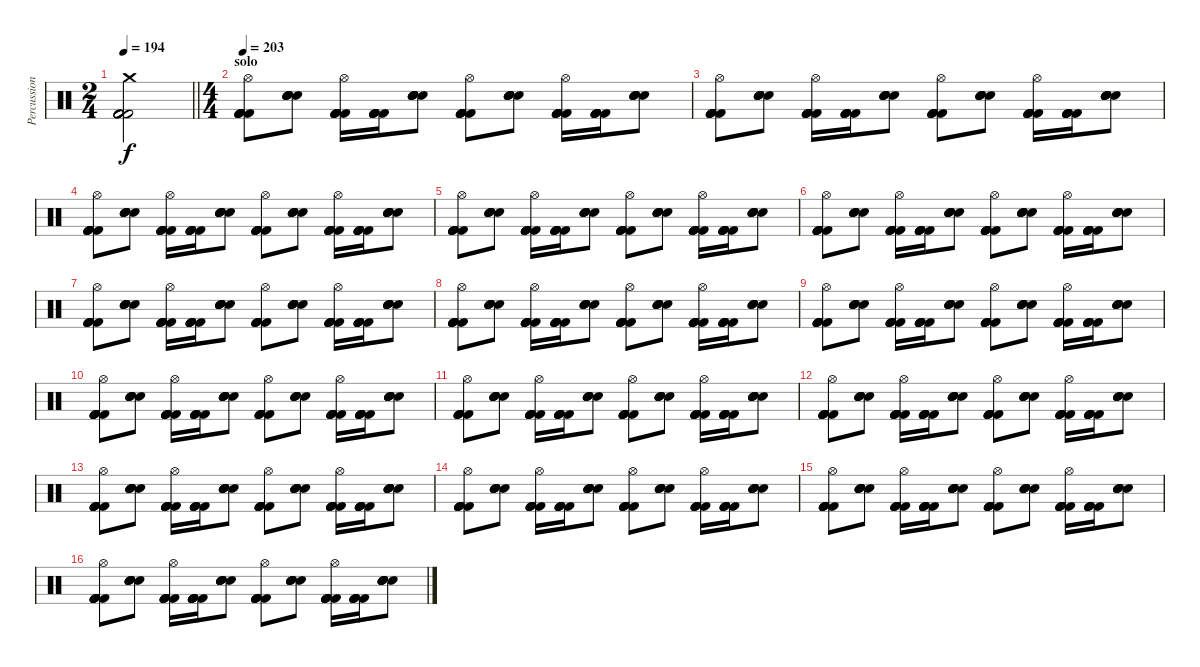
\track ("Percussion" "Percussion") {instrument percussion}
\staff {score}
\articulation defaults
\ts (2 4)
\tempo 194
\clef neutral
\barLineRight lightlight
\ks c
("Kick (hit) 2" "Kick (hit) 2" "Kick (hit) 2" "Kick (hit) 2" "Kick (hit) 2" "Crash medium (hit)").2{dy f} |
\ts (4 4)
\section ("" "solo")
\tempo 203
("Kick (hit) 2" "Kick (hit) 2" "Kick (hit) 2" "Kick (hit) 2" "Kick (hit) 2" "Hi-Hat (open)").8 ("Electric Snare (hit)" "Electric Snare (hit)" "Electric Snare (hit)" "Electric Snare (hit)" "Electric Snare (hit)").8 ("Kick (hit) 2" "Kick (hit) 2" "Kick (hit) 2" "Kick (hit) 2" "Kick (hit) 2" "Hi-Hat (open)").16 ("Kick (hit) 2" "Kick (hit) 2" "Kick (hit) 2" "Kick (hit) 2" "Kick (hit) 2").16 ("Electric Snare (hit)" "Electric Snare (hit)" "Electric Snare (hit)" "Electric Snare (hit)" "Electric Snare (hit)").8 ("Kick (hit) 2" "Kick (hit) 2" "Kick (hit) 2" "Kick (hit) 2" "Kick (hit) 2" "Hi-Hat (open)").8 ("Electric Snare (hit)" "Electric Snare (hit)" "Electric Snare (hit)" "Electric Snare (hit)" "Electric Snare (hit)").8 ("Kick (hit) 2" "Kick (hit) 2" "Kick (hit) 2" "Kick (hit) 2" "Kick (hit) 2" "Hi-Hat (open)").16 ("Kick (hit) 2" "Kick (hit) 2" "Kick (hit) 2" "Kick (hit) 2" "Kick (hit) 2").16 ("Electric Snare (hit)" "Electric Snare (hit)" "Electric Snare (hit)" "Electric Snare (hit)" "Electric Snare (hit)").8 |
("Kick (hit) 2" "Kick (hit) 2" "Kick (hit) 2" "Kick (hit) 2" "Kick (hit) 2" "Hi-Hat (open)").8 ("Electric Snare (hit)" "Electric Snare (hit)" "Electric Snare (hit)" "Electric Snare (hit)" "Electric Snare (hit)").8 ("Kick (hit) 2" "Kick (hit) 2" "Kick (hit) 2" "Kick (hit) 2" "Kick (hit) 2" "Hi-Hat (open)").16 ("Kick (hit) 2" "Kick (hit) 2" "Kick (hit) 2" "Kick (hit) 2" "Kick (hit) 2").16 ("Electric Snare (hit)" "Electric Snare (hit)" "Electric Snare (hit)" "Electric Snare (hit)" "Electric Snare (hit)").8 ("Kick (hit) 2" "Kick (hit) 2" "Kick (hit) 2" "Kick (hit) 2" "Kick (hit) 2" "Hi-Hat (open)").8 ("Electric Snare (hit)" "Electric Snare (hit)" "Electric Snare (hit)" "Electric Snare (hit)" "Electric Snare (hit)").8 ("Kick (hit) 2" "Kick (hit) 2" "Kick (hit) 2" "Kick (hit) 2" "Kick (hit) 2" "Hi-Hat (open)").16 ("Kick (hit) 2" "Kick (hit) 2" "Kick (hit) 2" "Kick (hit) 2" "Kick (hit) 2").16 ("Electric Snare (hit)" "Electric Snare (hit)" "Electric Snare (hit)" "Electric Snare (hit)" "Electric Snare (hit)").8 |
("Kick (hit) 2" "Kick (hit) 2" "Kick (hit) 2" "Kick (hit) 2" "Kick (hit) 2" "Hi-Hat (open)").8 ("Electric Snare (hit)" "Electric Snare (hit)" "Electric Snare (hit)" "Electric Snare (hit)" "Electric Snare (hit)").8 ("Kick (hit) 2" "Kick (hit) 2" "Kick (hit) 2" "Kick (hit) 2" "Kick (hit) 2" "Hi-Hat (open)").16 ("Kick (hit) 2" "Kick (hit) 2" "Kick (hit) 2" "Kick (hit) 2" "Kick (hit) 2").16 ("Electric Snare (hit)" "Electric Snare (hit)" "Electric Snare (hit)" "Electric Snare (hit)" "Electric Snare (hit)").8 ("Kick (hit) 2" "Kick (hit) 2" "Kick (hit) 2" "Kick (hit) 2" "Kick (hit) 2" "Hi-Hat (open)").8 ("Electric Snare (hit)" "Electric Snare (hit)" "Electric Snare (hit)" "Electric Snare (hit)" "Electric Snare (hit)").8 ("Kick (hit) 2" "Kick (hit) 2" "Kick (hit) 2" "Kick (hit) 2" "Kick (hit) 2" "Hi-Hat (open)").16 ("Kick (hit) 2" "Kick (hit) 2" "Kick (hit) 2" "Kick (hit) 2" "Kick (hit) 2").16 ("Electric Snare (hit)" "Electric Snare (hit)" "Electric Snare (hit)" "Electric Snare (hit)" "Electric Snare (hit)").8 |
("Kick (hit) 2" "Kick (hit) 2" "Kick (hit) 2" "Kick (hit) 2" "Kick (hit) 2" "Hi-Hat (open)").8 ("Electric Snare (hit)" "Electric Snare (hit)" "Electric Snare (hit)" "Electric Snare (hit)" "Electric Snare (hit)").8 ("Kick (hit) 2" "Kick (hit) 2" "Kick (hit) 2" "Kick (hit) 2" "Kick (hit) 2" "Hi-Hat (open)").16 ("Kick (hit) 2" "Kick (hit) 2" "Kick (hit) 2" "Kick (hit) 2" "Kick (hit) 2").16 ("Electric Snare (hit)" "Electric Snare (hit)" "Electric Snare (hit)" "Electric Snare (hit)" "Electric Snare (hit)").8 ("Kick (hit) 2" "Kick (hit) 2" "Kick (hit) 2" "Kick (hit) 2" "Kick (hit) 2" "Hi-Hat (open)").8 ("Electric Snare (hit)" "Electric Snare (hit)" "Electric Snare (hit)" "Electric Snare (hit)" "Electric Snare (hit)").8 ("Kick (hit) 2" "Kick (hit) 2" "Kick (hit) 2" "Kick (hit) 2" "Kick (hit) 2" "Hi-Hat (open)").16 ("Kick (hit) 2" "Kick (hit) 2" "Kick (hit) 2" "Kick (hit) 2" "Kick (hit) 2").16 ("Electric Snare (hit)" "Electric Snare (hit)" "Electric Snare (hit)" "Electric Snare (hit)" "Electric Snare (hit)").8 |
("Kick (hit) 2" "Kick (hit) 2" "Kick (hit) 2" "Kick (hit) 2" "Kick (hit) 2" "Hi-Hat (open)").8 ("Electric Snare (hit)" "Electric Snare (hit)" "Electric Snare (hit)" "Electric Snare (hit)" "Electric Snare (hit)").8 ("Kick (hit) 2" "Kick (hit) 2" "Kick (hit) 2" "Kick (hit) 2" "Kick (hit) 2" "Hi-Hat (open)").16 ("Kick (hit) 2" "Kick (hit) 2" "Kick (hit) 2" "Kick (hit) 2" "Kick (hit) 2").16 ("Electric Snare (hit)" "Electric Snare (hit)" "Electric Snare (hit)" "Electric Snare (hit)" "Electric Snare (hit)").8 ("Kick (hit) 2" "Kick (hit) 2" "Kick (hit) 2" "Kick (hit) 2" "Kick (hit) 2" "Hi-Hat (open)").8 ("Electric Snare (hit)" "Electric Snare (hit)" "Electric Snare (hit)" "Electric Snare (hit)" "Electric Snare (hit)").8 ("Kick (hit) 2" "Kick (hit) 2" "Kick (hit) 2" "Kick (hit) 2" "Kick (hit) 2" "Hi-Hat (open)").16 ("Kick (hit) 2" "Kick (hit) 2" "Kick (hit) 2" "Kick (hit) 2" "Kick (hit) 2").16 ("Electric Snare (hit)" "Electric Snare (hit)" "Electric Snare (hit)" "Electric Snare (hit)" "Electric Snare (hit)").8 |
("Kick (hit) 2" "Kick (hit) 2" "Kick (hit) 2" "Kick (hit) 2" "Kick (hit) 2" "Hi-Hat (open)").8 ("Electric Snare (hit)" "Electric Snare (hit)" "Electric Snare (hit)" "Electric Snare (hit)" "Electric Snare (hit)").8 ("Kick (hit) 2" "Kick (hit) 2" "Kick (hit) 2" "Kick (hit) 2" "Kick (hit) 2" "Hi-Hat (open)").16 ("Kick (hit) 2" "Kick (hit) 2" "Kick (hit) 2" "Kick (hit) 2" "Kick (hit) 2").16 ("Electric Snare (hit)" "Electric Snare (hit)" "Electric Snare (hit)" "Electric Snare (hit)" "Electric Snare (hit)").8 ("Kick (hit) 2" "Kick (hit) 2" "Kick (hit) 2" "Kick (hit) 2" "Kick (hit) 2" "Hi-Hat (open)").8 ("Electric Snare (hit)" "Electric Snare (hit)" "Electric Snare (hit)" "Electric Snare (hit)" "Electric Snare (hit)").8 ("Kick (hit) 2" "Kick (hit) 2" "Kick (hit) 2" "Kick (hit) 2" "Kick (hit) 2" "Hi-Hat (open)").16 ("Kick (hit) 2" "Kick (hit) 2" "Kick (hit) 2" "Kick (hit) 2" "Kick (hit) 2").16 ("Electric Snare (hit)" "Electric Snare (hit)" "Electric Snare (hit)" "Electric Snare (hit)" "Electric Snare (hit)").8 |
("Kick (hit) 2" "Kick (hit) 2" "Kick (hit) 2" "Kick (hit) 2" "Kick (hit) 2" "Hi-Hat (open)").8 ("Electric Snare (hit)" "Electric Snare (hit)" "Electric Snare (hit)" "Electric Snare (hit)" "Electric Snare (hit)").8 ("Kick (hit) 2" "Kick (hit) 2" "Kick (hit) 2" "Kick (hit) 2" "Kick (hit) 2" "Hi-Hat (open)").16 ("Kick (hit) 2" "Kick (hit) 2" "Kick (hit) 2" "Kick (hit) 2" "Kick (hit) 2").16 ("Electric Snare (hit)" "Electric Snare (hit)" "Electric Snare (hit)" "Electric Snare (hit)" "Electric Snare (hit)").8 ("Kick (hit) 2" "Kick (hit) 2" "Kick (hit) 2" "Kick (hit) 2" "Kick (hit) 2" "Hi-Hat (open)").8 ("Electric Snare (hit)" "Electric Snare (hit)" "Electric Snare (hit)" "Electric Snare (hit)" "Electric Snare (hit)").8 ("Kick (hit) 2" "Kick (hit) 2" "Kick (hit) 2" "Kick (hit) 2" "Kick (hit) 2" "Hi-Hat (open)").16 ("Kick (hit) 2" "Kick (hit) 2" "Kick (hit) 2" "Kick (hit) 2" "Kick (hit) 2").16 ("Electric Snare (hit)" "Electric Snare (hit)" "Electric Snare (hit)" "Electric Snare (hit)" "Electric Snare (hit)").8 |
("Kick (hit) 2" "Kick (hit) 2" "Kick (hit) 2" "Kick (hit) 2" "Kick (hit) 2" "Hi-Hat (open)").8 ("Electric Snare (hit)" "Electric Snare (hit)" "Electric Snare (hit)" "Electric Snare (hit)" "Electric Snare (hit)").8 ("Kick (hit) 2" "Kick (hit) 2" "Kick (hit) 2" "Kick (hit) 2" "Kick (hit) 2" "Hi-Hat (open)").16 ("Kick (hit) 2" "Kick (hit) 2" "Kick (hit) 2" "Kick (hit) 2" "Kick (hit) 2").16 ("Electric Snare (hit)" "Electric Snare (hit)" "Electric Snare (hit)" "Electric Snare (hit)" "Electric Snare (hit)").8 ("Kick (hit) 2" "Kick (hit) 2" "Kick (hit) 2" "Kick (hit) 2" "Kick (hit) 2" "Hi-Hat (open)").8 ("Electric Snare (hit)" "Electric Snare (hit)" "Electric Snare (hit)" "Electric Snare (hit)" "Electric Snare (hit)").8 ("Kick (hit) 2" "Kick (hit) 2" "Kick (hit) 2" "Kick (hit) 2" "Kick (hit) 2" "Hi-Hat (open)").16 ("Kick (hit) 2" "Kick (hit) 2" "Kick (hit) 2" "Kick (hit) 2" "Kick (hit) 2").16 ("Electric Snare (hit)" "Electric Snare (hit)" "Electric Snare (hit)" "Electric Snare (hit)" "Electric Snare (hit)").8 |
("Kick (hit) 2" "Kick (hit) 2" "Kick (hit) 2" "Kick (hit) 2" "Kick (hit) 2" "Hi-Hat (open)").8 ("Electric Snare (hit)" "Electric Snare (hit)" "Electric Snare (hit)" "Electric Snare (hit)" "Electric Snare (hit)").8 ("Kick (hit) 2" "Kick (hit) 2" "Kick (hit) 2" "Kick (hit) 2" "Kick (hit) 2" "Hi-Hat (open)").16 ("Kick (hit) 2" "Kick (hit) 2" "Kick (hit) 2" "Kick (hit) 2" "Kick (hit) 2").16 ("Electric Snare (hit)" "Electric Snare (hit)" "Electric Snare (hit)" "Electric Snare (hit)" "Electric Snare (hit)").8 ("Kick (hit) 2" "Kick (hit) 2" "Kick (hit) 2" "Kick (hit) 2" "Kick (hit) 2" "Hi-Hat (open)").8 ("Electric Snare (hit)" "Electric Snare (hit)" "Electric Snare (hit)" "Electric Snare (hit)" "Electric Snare (hit)").8 ("Kick (hit) 2" "Kick (hit) 2" "Kick (hit) 2" "Kick (hit) 2" "Kick (hit) 2" "Hi-Hat (open)").16 ("Kick (hit) 2" "Kick (hit) 2" "Kick (hit) 2" "Kick (hit) 2" "Kick (hit) 2").16 ("Electric Snare (hit)" "Electric Snare (hit)" "Electric Snare (hit)" "Electric Snare (hit)" "Electric Snare (hit)").8 |
("Kick (hit) 2" "Kick (hit) 2" "Kick (hit) 2" "Kick (hit) 2" "Kick (hit) 2" "Hi-Hat (open)").8 ("Electric Snare (hit)" "Electric Snare (hit)" "Electric Snare (hit)" "Electric Snare (hit)" "Electric Snare (hit)").8 ("Kick (hit) 2" "Kick (hit) 2" "Kick (hit) 2" "Kick (hit) 2" "Kick (hit) 2" "Hi-Hat (open)").16 ("Kick (hit) 2" "Kick (hit) 2" "Kick (hit) 2" "Kick (hit) 2" "Kick (hit) 2").16 ("Electric Snare (hit)" "Electric Snare (hit)" "Electric Snare (hit)" "Electric Snare (hit)" "Electric Snare (hit)").8 ("Kick (hit) 2" "Kick (hit) 2" "Kick (hit) 2" "Kick (hit) 2" "Kick (hit) 2" "Hi-Hat (open)").8 ("Electric Snare (hit)" "Electric Snare (hit)" "Electric Snare (hit)" "Electric Snare (hit)" "Electric Snare (hit)").8 ("Kick (hit) 2" "Kick (hit) 2" "Kick (hit) 2" "Kick (hit) 2" "Kick (hit) 2" "Hi-Hat (open)").16 ("Kick (hit) 2" "Kick (hit) 2" "Kick (hit) 2" "Kick (hit) 2" "Kick (hit) 2").16 ("Electric Snare (hit)" "Electric Snare (hit)" "Electric Snare (hit)" "Electric Snare (hit)" "Electric Snare (hit)").8 |
("Kick (hit) 2" "Kick (hit) 2" "Kick (hit) 2" "Kick (hit) 2" "Kick (hit) 2" "Hi-Hat (open)").8 ("Electric Snare (hit)" "Electric Snare (hit)" "Electric Snare (hit)" "Electric Snare (hit)" "Electric Snare (hit)").8 ("Kick (hit) 2" "Kick (hit) 2" "Kick (hit) 2" "Kick (hit) 2" "Kick (hit) 2" "Hi-Hat (open)").16 ("Kick (hit) 2" "Kick (hit) 2" "Kick (hit) 2" "Kick (hit) 2" "Kick (hit) 2").16 ("Electric Snare (hit)" "Electric Snare (hit)" "Electric Snare (hit)" "Electric Snare (hit)" "Electric Snare (hit)").8 ("Kick (hit) 2" "Kick (hit) 2" "Kick (hit) 2" "Kick (hit) 2" "Kick (hit) 2" "Hi-Hat (open)").8 ("Electric Snare (hit)" "Electric Snare (hit)" "Electric Snare (hit)" "Electric Snare (hit)" "Electric Snare (hit)").8 ("Kick (hit) 2" "Kick (hit) 2" "Kick (hit) 2" "Kick (hit) 2" "Kick (hit) 2" "Hi-Hat (open)").16 ("Kick (hit) 2" "Kick (hit) 2" "Kick (hit) 2" "Kick (hit) 2" "Kick (hit) 2").16 ("Electric Snare (hit)" "Electric Snare (hit)" "Electric Snare (hit)" "Electric Snare (hit)" "Electric Snare (hit)").8 |
("Kick (hit) 2" "Kick (hit) 2" "Kick (hit) 2" "Kick (hit) 2" "Kick (hit) 2" "Hi-Hat (open)").8 ("Electric Snare (hit)" "Electric Snare (hit)" "Electric Snare (hit)" "Electric Snare (hit)" "Electric Snare (hit)").8 ("Kick (hit) 2" "Kick (hit) 2" "Kick (hit) 2" "Kick (hit) 2" "Kick (hit) 2" "Hi-Hat (open)").16 ("Kick (hit) 2" "Kick (hit) 2" "Kick (hit) 2" "Kick (hit) 2" "Kick (hit) 2").16 ("Electric Snare (hit)" "Electric Snare (hit)" "Electric Snare (hit)" "Electric Snare (hit)" "Electric Snare (hit)").8 ("Kick (hit) 2" "Kick (hit) 2" "Kick (hit) 2" "Kick (hit) 2" "Kick (hit) 2" "Hi-Hat (open)").8 ("Electric Snare (hit)" "Electric Snare (hit)" "Electric Snare (hit)" "Electric Snare (hit)" "Electric Snare (hit)").8 ("Kick (hit) 2" "Kick (hit) 2" "Kick (hit) 2" "Kick (hit) 2" "Kick (hit) 2" "Hi-Hat (open)").16 ("Kick (hit) 2" "Kick (hit) 2" "Kick (hit) 2" "Kick (hit) 2" "Kick (hit) 2").16 ("Electric Snare (hit)" "Electric Snare (hit)" "Electric Snare (hit)" "Electric Snare (hit)" "Electric Snare (hit)").8 |
("Kick (hit) 2" "Kick (hit) 2" "Kick (hit) 2" "Kick (hit) 2" "Kick (hit) 2" "Hi-Hat (open)").8 ("Electric Snare (hit)" "Electric Snare (hit)" "Electric Snare (hit)" "Electric Snare (hit)" "Electric Snare (hit)").8 ("Kick (hit) 2" "Kick (hit) 2" "Kick (hit) 2" "Kick (hit) 2" "Kick (hit) 2" "Hi-Hat (open)").16 ("Kick (hit) 2" "Kick (hit) 2" "Kick (hit) 2" "Kick (hit) 2" "Kick (hit) 2").16 ("Electric Snare (hit)" "Electric Snare (hit)" "Electric Snare (hit)" "Electric Snare (hit)" "Electric Snare (hit)").8 ("Kick (hit) 2" "Kick (hit) 2" "Kick (hit) 2" "Kick (hit) 2" "Kick (hit) 2" "Hi-Hat (open)").8 ("Electric Snare (hit)" "Electric Snare (hit)" "Electric Snare (hit)" "Electric Snare (hit)" "Electric Snare (hit)").8 ("Kick (hit) 2" "Kick (hit) 2" "Kick (hit) 2" "Kick (hit) 2" "Kick (hit) 2" "Hi-Hat (open)").16 ("Kick (hit) 2" "Kick (hit) 2" "Kick (hit) 2" "Kick (hit) 2" "Kick (hit) 2").16 ("Electric Snare (hit)" "Electric Snare (hit)" "Electric Snare (hit)" "Electric Snare (hit)" "Electric Snare (hit)").8 |
("Kick (hit) 2" "Kick (hit) 2" "Kick (hit) 2" "Kick (hit) 2" "Kick (hit) 2" "Hi-Hat (open)").8 ("Electric Snare (hit)" "Electric Snare (hit)" "Electric Snare (hit)" "Electric Snare (hit)" "Electric Snare (hit)").8 ("Kick (hit) 2" "Kick (hit) 2" "Kick (hit) 2" "Kick (hit) 2" "Kick (hit) 2" "Hi-Hat (open)").16 ("Kick (hit) 2" "Kick (hit) 2" "Kick (hit) 2" "Kick (hit) 2" "Kick (hit) 2").16 ("Electric Snare (hit)" "Electric Snare (hit)" "Electric Snare (hit)" "Electric Snare (hit)" "Electric Snare (hit)").8 ("Kick (hit) 2" "Kick (hit) 2" "Kick (hit) 2" "Kick (hit) 2" "Kick (hit) 2" "Hi-Hat (open)").8 ("Electric Snare (hit)" "Electric Snare (hit)" "Electric Snare (hit)" "Electric Snare (hit)" "Electric Snare (hit)").8 ("Kick (hit) 2" "Kick (hit) 2" "Kick (hit) 2" "Kick (hit) 2" "Kick (hit) 2" "Hi-Hat (open)").16 ("Kick (hit) 2" "Kick (hit) 2" "Kick (hit) 2" "Kick (hit) 2" "Kick (hit) 2").16 ("Electric Snare (hit)" "Electric Snare (hit)" "Electric Snare (hit)" "Electric Snare (hit)" "Electric Snare (hit)").8 |
("Kick (hit) 2" "Kick (hit) 2" "Kick (hit) 2" "Kick (hit) 2" "Kick (hit) 2" "Hi-Hat (open)").8 ("Electric Snare (hit)" "Electric Snare (hit)" "Electric Snare (hit)" "Electric Snare (hit)" "Electric Snare (hit)").8 ("Kick (hit) 2" "Kick (hit) 2" "Kick (hit) 2" "Kick (hit) 2" "Kick (hit) 2" "Hi-Hat (open)").16 ("Kick (hit) 2" "Kick (hit) 2" "Kick (hit) 2" "Kick (hit) 2" "Kick (hit) 2").16 ("Electric Snare (hit)" "Electric Snare (hit)" "Electric Snare (hit)" "Electric Snare (hit)" "Electric Snare (hit)").8 ("Kick (hit) 2" "Kick (hit) 2" "Kick (hit) 2" "Kick (hit) 2" "Kick (hit) 2" "Hi-Hat (open)").8 ("Electric Snare (hit)" "Electric Snare (hit)" "Electric Snare (hit)" "Electric Snare (hit)" "Electric Snare (hit)").8 ("Kick (hit) 2" "Kick (hit) 2" "Kick (hit) 2" "Kick (hit) 2" "Kick (hit) 2" "Hi-Hat (open)").16 ("Kick (hit) 2" "Kick (hit) 2" "Kick (hit) 2" "Kick (hit) 2" "Kick (hit) 2").16 ("Electric Snare (hit)" "Electric Snare (hit)" "Electric Snare (hit)" "Electric Snare (hit)" "Electric Snare (hit)").8
